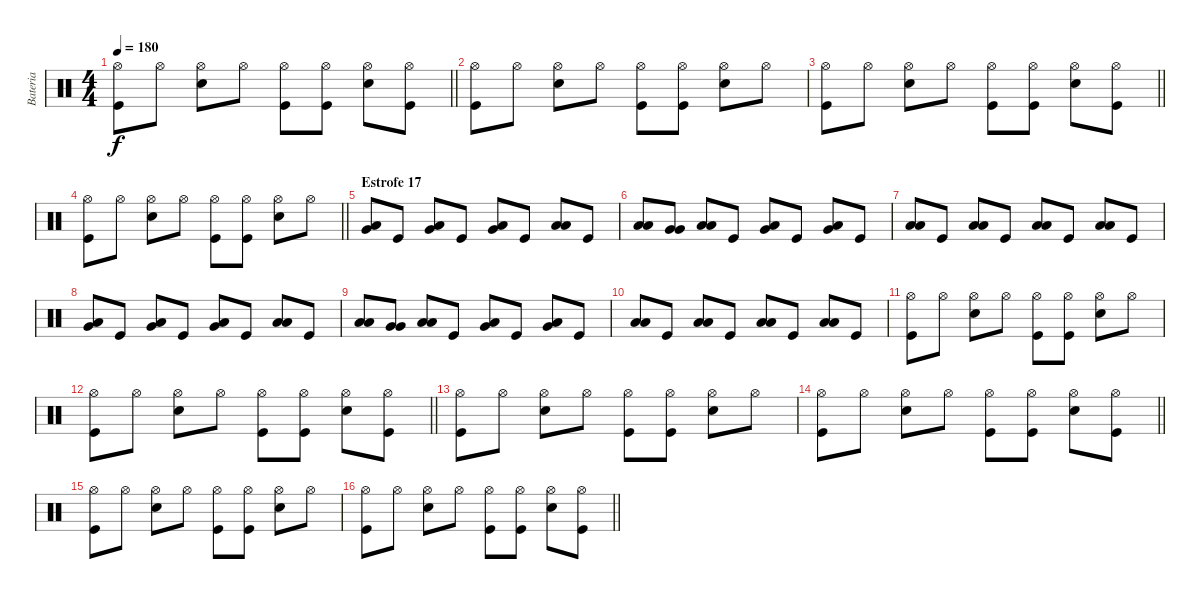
\track ("Bateria" "Bateria") {instrument percussion}
\staff {score}
\articulation defaults
\ts (4 4)
\tempo 180
\clef neutral
\barLineRight lightlight
\ks c
("Hi-Hat (open)" "Kick (hit)").8{dy f} "Hi-Hat (open)".8 ("Hi-Hat (open)" "Snare (hit) 2").8 "Hi-Hat (open)".8 ("Hi-Hat (open)" "Kick (hit)").8 ("Hi-Hat (open)" "Kick (hit)").8 ("Hi-Hat (open)" "Snare (hit) 2").8 ("Hi-Hat (open)" "Kick (hit)").8 |
("Hi-Hat (open)" "Kick (hit)").8 "Hi-Hat (open)".8 ("Hi-Hat (open)" "Snare (hit) 2").8 "Hi-Hat (open)".8 ("Hi-Hat (open)" "Kick (hit)").8 ("Hi-Hat (open)" "Kick (hit)").8 ("Hi-Hat (open)" "Snare (hit) 2").8 "Hi-Hat (open)".8 |
\barLineRight lightlight
("Hi-Hat (open)" "Kick (hit)").8 "Hi-Hat (open)".8 ("Hi-Hat (open)" "Snare (hit) 2").8 "Hi-Hat (open)".8 ("Hi-Hat (open)" "Kick (hit)").8 ("Hi-Hat (open)" "Kick (hit)").8 ("Hi-Hat (open)" "Snare (hit) 2").8 ("Hi-Hat (open)" "Kick (hit)").8 |
\barLineRight lightlight
("Hi-Hat (open)" "Kick (hit)").8 "Hi-Hat (open)".8 ("Hi-Hat (open)" "Snare (hit) 2").8 "Hi-Hat (open)".8 ("Hi-Hat (open)" "Kick (hit)").8 ("Hi-Hat (open)" "Kick (hit)").8 ("Hi-Hat (open)" "Snare (hit) 2").8 "Hi-Hat (open)".8 |
\section ("" "Estrofe 17")
("Low Tom (hit)" "Very Low Tom (hit)").8 "Kick (hit)".8 ("Very Low Tom (hit)" "Low Floor Tom (hit)").8 "Kick (hit)".8 ("Low Tom (hit)" "Very Low Tom (hit)").8 "Kick (hit)".8 ("Low Floor Tom (hit)" "Low Floor Tom (hit)").8 "Kick (hit)".8 |
("Low Tom (hit)" "Low Tom (hit)").8 ("Very Low Tom (hit)" "Very Low Tom (hit)").8 ("Low Floor Tom (hit)" "Low Floor Tom (hit)").8 "Kick (hit)".8 ("Low Floor Tom (hit)" "Very Low Tom (hit)").8 "Kick (hit)".8 ("Low Tom (hit)" "Very Low Tom (hit)").8 "Kick (hit)".8 |
("Low Floor Tom (hit)" "Low Floor Tom (hit)").8 "Kick (hit)".8 ("Low Floor Tom (hit)" "Low Floor Tom (hit)").8 "Kick (hit)".8 ("Low Floor Tom (hit)" "Low Floor Tom (hit)").8 "Kick (hit)".8 ("Low Floor Tom (hit)" "Low Floor Tom (hit)").8 "Kick (hit)".8 |
("Low Tom (hit)" "Very Low Tom (hit)").8 "Kick (hit)".8 ("Very Low Tom (hit)" "Low Floor Tom (hit)").8 "Kick (hit)".8 ("Low Tom (hit)" "Very Low Tom (hit)").8 "Kick (hit)".8 ("Low Floor Tom (hit)" "Low Floor Tom (hit)").8 "Kick (hit)".8 |
("Low Tom (hit)" "Low Tom (hit)").8 ("Very Low Tom (hit)" "Very Low Tom (hit)").8 ("Low Floor Tom (hit)" "Low Floor Tom (hit)").8 "Kick (hit)".8 ("Low Floor Tom (hit)" "Very Low Tom (hit)").8 "Kick (hit)".8 ("Low Tom (hit)" "Very Low Tom (hit)").8 "Kick (hit)".8 |
("Low Floor Tom (hit)" "Low Floor Tom (hit)").8 "Kick (hit)".8 ("Low Floor Tom (hit)" "Low Floor Tom (hit)").8 "Kick (hit)".8 ("Low Floor Tom (hit)" "Low Floor Tom (hit)").8 "Kick (hit)".8 ("Low Floor Tom (hit)" "Low Floor Tom (hit)").8 "Kick (hit)".8 |
("Hi-Hat (open)" "Kick (hit)").8 "Hi-Hat (open)".8 ("Hi-Hat (open)" "Snare (hit) 2").8 "Hi-Hat (open)".8 ("Hi-Hat (open)" "Kick (hit)").8 ("Hi-Hat (open)" "Kick (hit)").8 ("Hi-Hat (open)" "Snare (hit) 2").8 "Hi-Hat (open)".8 |
\barLineRight lightlight
("Hi-Hat (open)" "Kick (hit)").8 "Hi-Hat (open)".8 ("Hi-Hat (open)" "Snare (hit) 2").8 "Hi-Hat (open)".8 ("Hi-Hat (open)" "Kick (hit)").8 ("Hi-Hat (open)" "Kick (hit)").8 ("Hi-Hat (open)" "Snare (hit) 2").8 ("Hi-Hat (open)" "Kick (hit)").8 |
("Hi-Hat (open)" "Kick (hit)").8 "Hi-Hat (open)".8 ("Hi-Hat (open)" "Snare (hit) 2").8 "Hi-Hat (open)".8 ("Hi-Hat (open)" "Kick (hit)").8 ("Hi-Hat (open)" "Kick (hit)").8 ("Hi-Hat (open)" "Snare (hit) 2").8 "Hi-Hat (open)".8 |
\barLineRight lightlight
("Hi-Hat (open)" "Kick (hit)").8 "Hi-Hat (open)".8 ("Hi-Hat (open)" "Snare (hit) 2").8 "Hi-Hat (open)".8 ("Hi-Hat (open)" "Kick (hit)").8 ("Hi-Hat (open)" "Kick (hit)").8 ("Hi-Hat (open)" "Snare (hit) 2").8 ("Hi-Hat (open)" "Kick (hit)").8 |
("Hi-Hat (open)" "Kick (hit)").8 "Hi-Hat (open)".8 ("Hi-Hat (open)" "Snare (hit) 2").8 "Hi-Hat (open)".8 ("Hi-Hat (open)" "Kick (hit)").8 ("Hi-Hat (open)" "Kick (hit)").8 ("Hi-Hat (open)" "Snare (hit) 2").8 "Hi-Hat (open)".8 |
\barLineRight lightlight
("Hi-Hat (open)" "Kick (hit)").8 "Hi-Hat (open)".8 ("Hi-Hat (open)" "Snare (hit) 2").8 "Hi-Hat (open)".8 ("Hi-Hat (open)" "Kick (hit)").8 ("Hi-Hat (open)" "Kick (hit)").8 ("Hi-Hat (open)" "Snare (hit) 2").8 ("Hi-Hat (open)" "Kick (hit)").8
